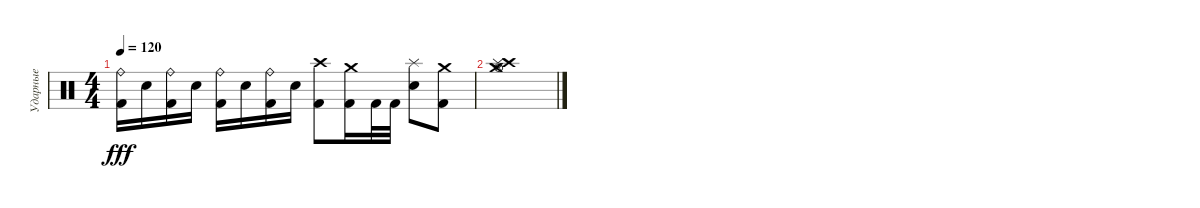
\track ("Ударные" "Ударные") {instrument percussion}
\staff {score}
\articulation defaults
\ts (4 4)
\tempo 120
\clef neutral
\ks c
("Ride (bell)" "Kick (hit) 2").16{dy fff} "Snare (hit) 2".16 ("Ride (bell)" "Kick (hit) 2").16 "Snare (hit) 2".16 ("Ride (bell)" "Kick (hit) 2").16 "Snare (hit) 2".16 ("Ride (bell)" "Kick (hit) 2").16 "Snare (hit) 2".16 ("Crash high (hit)" "Kick (hit) 2").8 ("Crash medium (hit)" "Kick (hit) 2").16 "Kick (hit) 2".32 "Kick (hit) 2".32 ("Splash (hit)" "Snare (hit) 2").8 ("Crash medium (hit)" "Kick (hit) 2").8 |
("Crash high (hit)" "Crash medium (hit)" "Hi-Hat (open)" "Splash (hit)").1
